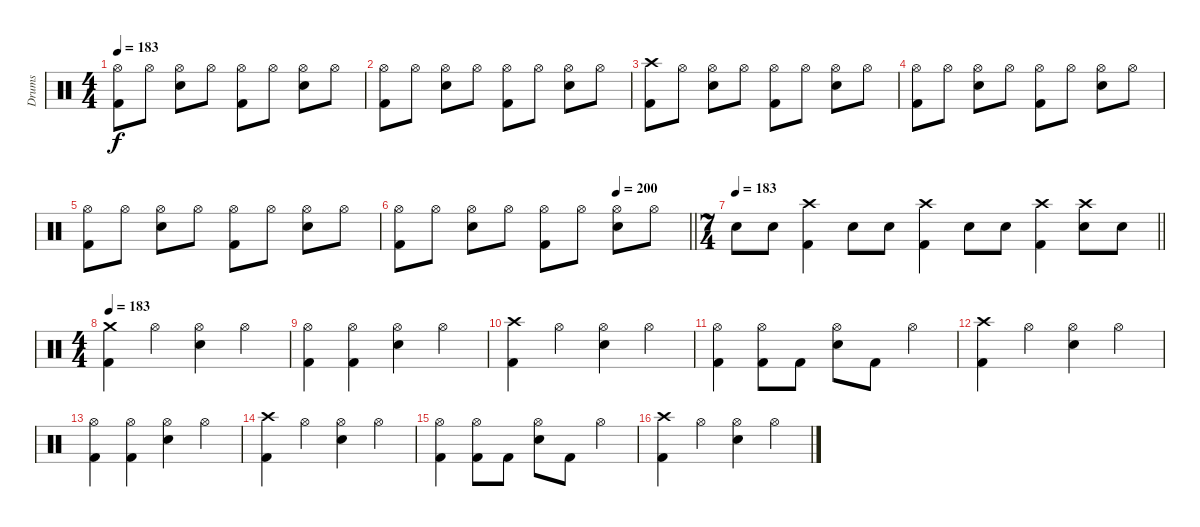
\track ("Drums" "Drums") {instrument percussion}
\staff {score}
\articulation defaults
\ts (4 4)
\tempo 183
\clef neutral
\ks c
("Hi-Hat (open)" "Kick (hit) 2").8{dy f} "Hi-Hat (open)".8 ("Hi-Hat (open)" "Electric Snare (hit)").8 "Hi-Hat (open)".8 ("Hi-Hat (open)" "Kick (hit) 2").8 "Hi-Hat (open)".8 ("Hi-Hat (open)" "Electric Snare (hit)").8 "Hi-Hat (open)".8 |
("Hi-Hat (open)" "Kick (hit) 2").8 "Hi-Hat (open)".8 ("Hi-Hat (open)" "Electric Snare (hit)").8 "Hi-Hat (open)".8 ("Hi-Hat (open)" "Kick (hit) 2").8 "Hi-Hat (open)".8 ("Hi-Hat (open)" "Electric Snare (hit)").8 "Hi-Hat (open)".8 |
("Crash high (hit)" "Kick (hit) 2").8 "Hi-Hat (open)".8 ("Hi-Hat (open)" "Electric Snare (hit)").8 "Hi-Hat (open)".8 ("Hi-Hat (open)" "Kick (hit) 2").8 "Hi-Hat (open)".8 ("Hi-Hat (open)" "Electric Snare (hit)").8 "Hi-Hat (open)".8 |
("Hi-Hat (open)" "Kick (hit) 2").8 "Hi-Hat (open)".8 ("Hi-Hat (open)" "Electric Snare (hit)").8 "Hi-Hat (open)".8 ("Hi-Hat (open)" "Kick (hit) 2").8 "Hi-Hat (open)".8 ("Hi-Hat (open)" "Electric Snare (hit)").8 "Hi-Hat (open)".8 |
("Hi-Hat (open)" "Kick (hit) 2").8 "Hi-Hat (open)".8 ("Hi-Hat (open)" "Electric Snare (hit)").8 "Hi-Hat (open)".8 ("Hi-Hat (open)" "Kick (hit) 2").8 "Hi-Hat (open)".8 ("Hi-Hat (open)" "Electric Snare (hit)").8 "Hi-Hat (open)".8 |
\tempo (200 0.75)
\barLineRight lightlight
("Hi-Hat (open)" "Kick (hit) 2").8 "Hi-Hat (open)".8 ("Hi-Hat (open)" "Electric Snare (hit)").8 "Hi-Hat (open)".8 ("Hi-Hat (open)" "Kick (hit) 2").8 "Hi-Hat (open)".8 ("Hi-Hat (open)" "Electric Snare (hit)").8 "Hi-Hat (open)".8 |
\ts (7 4)
\tempo 183
\barLineRight lightlight "Electric Snare (hit)".8 "Electric Snare (hit)".8
("Crash high (hit)" "Kick (hit) 2").4 "Electric Snare (hit)".8 "Electric Snare (hit)".8 ("Crash high (hit)" "Kick (hit) 2").4 "Electric Snare (hit)".8 "Electric Snare (hit)".8 ("Crash high (hit)" "Kick (hit) 2").4 ("Crash high (hit)" "Electric Snare (hit)").8 "Electric Snare (hit)".8 |
\ts (4 4)
\tempo 183
("Crash medium (hit)" "Kick (hit) 2").4 "Hi-Hat (open)".4 ("Hi-Hat (open)" "Electric Snare (hit)").4 "Hi-Hat (open)".4 |
("Hi-Hat (open)" "Kick (hit) 2").4 ("Hi-Hat (open)" "Kick (hit) 2").4 ("Hi-Hat (open)" "Electric Snare (hit)").4 "Hi-Hat (open)".4 |
("Crash high (hit)" "Kick (hit) 2").4 "Hi-Hat (open)".4 ("Hi-Hat (open)" "Electric Snare (hit)").4 "Hi-Hat (open)".4 |
("Hi-Hat (open)" "Kick (hit) 2").4 ("Hi-Hat (open)" "Kick (hit) 2").8 "Kick (hit) 2".8 ("Hi-Hat (open)" "Electric Snare (hit)").8 "Kick (hit) 2".8 "Hi-Hat (open)".4 |
("Crash high (hit)" "Kick (hit) 2").4 "Hi-Hat (open)".4 ("Hi-Hat (open)" "Electric Snare (hit)").4 "Hi-Hat (open)".4 |
("Hi-Hat (open)" "Kick (hit) 2").4 ("Hi-Hat (open)" "Kick (hit) 2").4 ("Hi-Hat (open)" "Electric Snare (hit)").4 "Hi-Hat (open)".4 |
("Crash high (hit)" "Kick (hit) 2").4 "Hi-Hat (open)".4 ("Hi-Hat (open)" "Electric Snare (hit)").4 "Hi-Hat (open)".4 |
("Hi-Hat (open)" "Kick (hit) 2").4 ("Hi-Hat (open)" "Kick (hit) 2").8 "Kick (hit) 2".8 ("Hi-Hat (open)" "Electric Snare (hit)").8 "Kick (hit) 2".8 "Hi-Hat (open)".4 |
("Crash high (hit)" "Kick (hit) 2").4 "Hi-Hat (open)".4 ("Hi-Hat (open)" "Electric Snare (hit)").4 "Hi-Hat (open)".4
